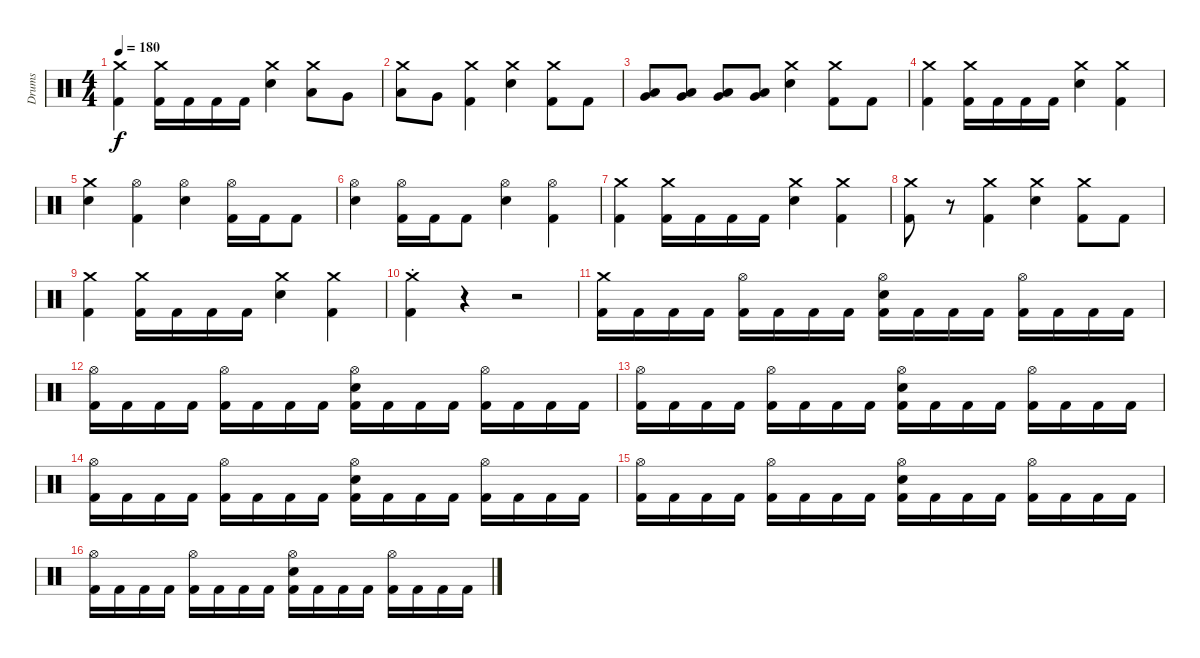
\track ("Drums" "Drums") {instrument percussion}
\staff {score}
\articulation defaults
\ts (4 4)
\tempo 180
\clef neutral
\ks c
("Crash medium (hit)" "Kick (hit) 2").4{dy f} ("Crash medium (hit)" "Kick (hit) 2").16 "Kick (hit) 2".16 "Kick (hit) 2".16 "Kick (hit) 2".16 ("Crash medium (hit)" "Electric Snare (hit)").4 ("Crash medium (hit)" "Low Tom (hit)").8 "Very Low Tom (hit)".8 |
("Crash medium (hit)" "Low Tom (hit)").8 "Very Low Tom (hit)".8 ("Crash medium (hit)" "Kick (hit) 2").4 ("Crash medium (hit)" "Electric Snare (hit)").4 ("Crash medium (hit)" "Kick (hit) 2").8 "Kick (hit) 2".8 |
("Low Tom (hit)" "Very Low Tom (hit)").8{bd 60} ("Low Tom (hit)" "Very Low Tom (hit)").8{bd 60} ("Low Tom (hit)" "Very Low Tom (hit)").8{bd 60} ("Low Tom (hit)" "Very Low Tom (hit)").8{bd 60} ("Crash medium (hit)" "Electric Snare (hit)").4 ("Crash medium (hit)" "Kick (hit) 2").8 "Kick (hit) 2".8 |
("Crash medium (hit)" "Kick (hit) 2").4 ("Crash medium (hit)" "Kick (hit) 2").16 "Kick (hit) 2".16 "Kick (hit) 2".16 "Kick (hit) 2".16 ("Crash medium (hit)" "Electric Snare (hit)").4 ("Crash medium (hit)" "Kick (hit) 2").4 |
("Crash medium (hit)" "Electric Snare (hit)").4 ("Hi-Hat (open)" "Kick (hit) 2").4 ("Hi-Hat (open)" "Electric Snare (hit)").4 ("Hi-Hat (open)" "Kick (hit) 2").16 "Kick (hit) 2".16 "Kick (hit) 2".8 |
("Hi-Hat (open)" "Electric Snare (hit)").4 ("Hi-Hat (open)" "Kick (hit) 2").16 "Kick (hit) 2".16 "Kick (hit) 2".8 ("Hi-Hat (open)" "Electric Snare (hit)").4 ("Hi-Hat (open)" "Kick (hit) 2").4 |
("Crash medium (hit)" "Kick (hit) 2").4 ("Crash medium (hit)" "Kick (hit) 2").16 "Kick (hit) 2".16 "Kick (hit) 2".16 "Kick (hit) 2".16 ("Crash medium (hit)" "Electric Snare (hit)").4 ("Crash medium (hit)" "Kick (hit) 2").4 |
("Crash medium (hit)" "Kick (hit) 2").8 r.8 ("Crash medium (hit)" "Kick (hit) 2").4 ("Crash medium (hit)" "Electric Snare (hit)").4 ("Crash medium (hit)" "Kick (hit) 2").8 "Kick (hit) 2".8 |
("Crash medium (hit)" "Kick (hit) 2").4 ("Crash medium (hit)" "Kick (hit) 2").16 "Kick (hit) 2".16 "Kick (hit) 2".16 "Kick (hit) 2".16 ("Crash medium (hit)" "Electric Snare (hit)").4 ("Crash medium (hit)" "Kick (hit) 2").4 |
("Crash medium (hit)"{st} "Kick (hit) 2"{st}).4 r.4 r.2 |
("Crash medium (hit)" "Kick (hit) 2").16 "Kick (hit) 2".16 "Kick (hit) 2".16 "Kick (hit) 2".16 ("Hi-Hat (open)" "Kick (hit) 2").16 "Kick (hit) 2".16 "Kick (hit) 2".16 "Kick (hit) 2".16 ("Hi-Hat (open)" "Electric Snare (hit)" "Kick (hit) 2").16 "Kick (hit) 2".16 "Kick (hit) 2".16 "Kick (hit) 2".16 ("Hi-Hat (open)" "Kick (hit) 2").16 "Kick (hit) 2".16 "Kick (hit) 2".16 "Kick (hit) 2".16 |
("Hi-Hat (open)" "Kick (hit) 2").16 "Kick (hit) 2".16 "Kick (hit) 2".16 "Kick (hit) 2".16 ("Hi-Hat (open)" "Kick (hit) 2").16 "Kick (hit) 2".16 "Kick (hit) 2".16 "Kick (hit) 2".16 ("Hi-Hat (open)" "Electric Snare (hit)" "Kick (hit) 2").16 "Kick (hit) 2".16 "Kick (hit) 2".16 "Kick (hit) 2".16 ("Hi-Hat (open)" "Kick (hit) 2").16 "Kick (hit) 2".16 "Kick (hit) 2".16 "Kick (hit) 2".16 |
("Hi-Hat (open)" "Kick (hit) 2").16 "Kick (hit) 2".16 "Kick (hit) 2".16 "Kick (hit) 2".16 ("Hi-Hat (open)" "Kick (hit) 2").16 "Kick (hit) 2".16 "Kick (hit) 2".16 "Kick (hit) 2".16 ("Hi-Hat (open)" "Electric Snare (hit)" "Kick (hit) 2").16 "Kick (hit) 2".16 "Kick (hit) 2".16 "Kick (hit) 2".16 ("Hi-Hat (open)" "Kick (hit) 2").16 "Kick (hit) 2".16 "Kick (hit) 2".16 "Kick (hit) 2".16 |
("Hi-Hat (open)" "Kick (hit) 2").16 "Kick (hit) 2".16 "Kick (hit) 2".16 "Kick (hit) 2".16 ("Hi-Hat (open)" "Kick (hit) 2").16 "Kick (hit) 2".16 "Kick (hit) 2".16 "Kick (hit) 2".16 ("Hi-Hat (open)" "Electric Snare (hit)" "Kick (hit) 2").16 "Kick (hit) 2".16 "Kick (hit) 2".16 "Kick (hit) 2".16 ("Hi-Hat (open)" "Kick (hit) 2").16 "Kick (hit) 2".16 "Kick (hit) 2".16 "Kick (hit) 2".16 |
("Hi-Hat (open)" "Kick (hit) 2").16 "Kick (hit) 2".16 "Kick (hit) 2".16 "Kick (hit) 2".16 ("Hi-Hat (open)" "Kick (hit) 2").16 "Kick (hit) 2".16 "Kick (hit) 2".16 "Kick (hit) 2".16 ("Hi-Hat (open)" "Electric Snare (hit)" "Kick (hit) 2").16 "Kick (hit) 2".16 "Kick (hit) 2".16 "Kick (hit) 2".16 ("Hi-Hat (open)" "Kick (hit) 2").16 "Kick (hit) 2".16 "Kick (hit) 2".16 "Kick (hit) 2".16 |
("Hi-Hat (open)" "Kick (hit) 2").16 "Kick (hit) 2".16 "Kick (hit) 2".16 "Kick (hit) 2".16 ("Hi-Hat (open)" "Kick (hit) 2").16 "Kick (hit) 2".16 "Kick (hit) 2".16 "Kick (hit) 2".16 ("Hi-Hat (open)" "Electric Snare (hit)" "Kick (hit) 2").16 "Kick (hit) 2".16 "Kick (hit) 2".16 "Kick (hit) 2".16 ("Hi-Hat (open)" "Kick (hit) 2").16 "Kick (hit) 2".16 "Kick (hit) 2".16 "Kick (hit) 2".16
